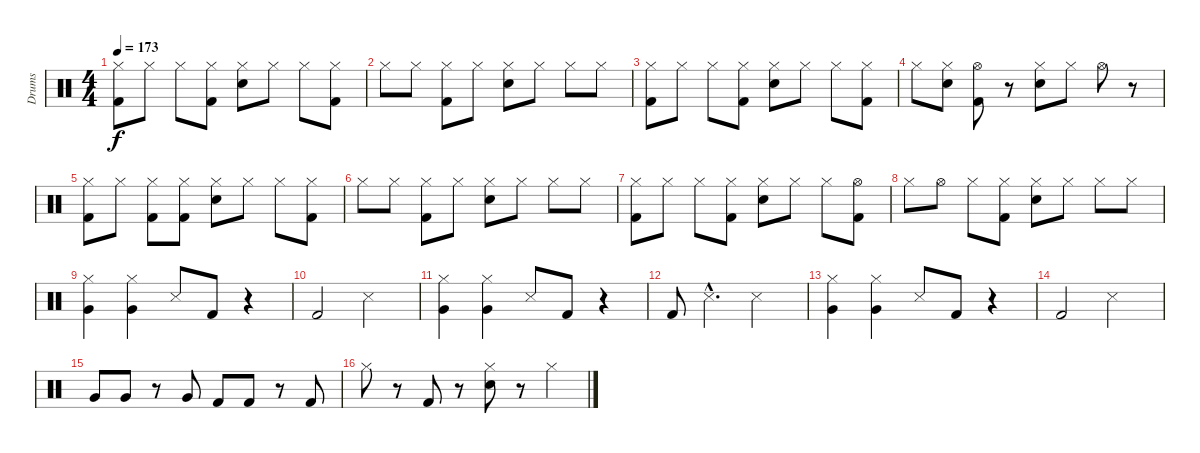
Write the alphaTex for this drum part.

\track ("Drums" "Drums") {instrument percussion}
\staff {score}
\articulation defaults
\ts (4 4)
\tempo 173
\clef neutral
\ks c
("Hi-Hat (closed)" "Kick (hit) 2").8{dy f} "Hi-Hat (closed)".8 "Hi-Hat (closed)".8 ("Hi-Hat (closed)" "Kick (hit) 2").8 ("Hi-Hat (closed)" "Electric Snare (hit)").8 "Hi-Hat (closed)".8 "Hi-Hat (closed)".8 ("Hi-Hat (closed)" "Kick (hit) 2").8 |
"Hi-Hat (closed)".8 "Hi-Hat (closed)".8 ("Hi-Hat (closed)" "Kick (hit) 2").8 "Hi-Hat (closed)".8 ("Hi-Hat (closed)" "Electric Snare (hit)").8 "Hi-Hat (closed)".8 "Hi-Hat (closed)".8 "Hi-Hat (closed)".8 |
("Hi-Hat (closed)" "Kick (hit) 2").8 "Hi-Hat (closed)".8 "Hi-Hat (closed)".8 ("Hi-Hat (closed)" "Kick (hit) 2").8 ("Hi-Hat (closed)" "Electric Snare (hit)").8 "Hi-Hat (closed)".8 "Hi-Hat (closed)".8 ("Hi-Hat (closed)" "Kick (hit) 2").8 |
"Hi-Hat (closed)".8 ("Hi-Hat (closed)" "Electric Snare (hit)").8 ("Hi-Hat (open)" "Kick (hit) 2").8 r.8 ("Hi-Hat (closed)" "Electric Snare (hit)").8 "Hi-Hat (closed)".8 "Hi-Hat (open)".8 r.8 |
("Hi-Hat (closed)" "Kick (hit) 2").8 "Hi-Hat (closed)".8 ("Hi-Hat (closed)" "Kick (hit) 2").8 ("Hi-Hat (closed)" "Kick (hit) 2").8 ("Hi-Hat (closed)" "Electric Snare (hit)").8 "Hi-Hat (closed)".8 "Hi-Hat (closed)".8 ("Hi-Hat (closed)" "Kick (hit) 2").8 |
"Hi-Hat (closed)".8 "Hi-Hat (closed)".8 ("Hi-Hat (closed)" "Kick (hit) 2").8 "Hi-Hat (closed)".8 ("Hi-Hat (closed)" "Electric Snare (hit)").8 "Hi-Hat (closed)".8 "Hi-Hat (closed)".8 "Hi-Hat (closed)".8 |
("Hi-Hat (closed)" "Kick (hit) 2").8 "Hi-Hat (closed)".8 "Hi-Hat (closed)".8 ("Hi-Hat (closed)" "Kick (hit) 2").8 ("Hi-Hat (closed)" "Electric Snare (hit)").8 "Hi-Hat (closed)".8 "Hi-Hat (closed)".8 ("Hi-Hat (open)" "Kick (hit) 2").8 |
"Hi-Hat (closed)".8 "Hi-Hat (open)".8 "Hi-Hat (closed)".8 ("Hi-Hat (closed)" "Kick (hit) 2").8 ("Hi-Hat (closed)" "Electric Snare (hit)").8 "Hi-Hat (closed)".8 "Hi-Hat (closed)".8 "Hi-Hat (closed)".8 |
("Hi-Hat (closed)" "Very Low Tom (hit)").4 ("Hi-Hat (closed)" "Very Low Tom (hit)").4 "Snare (side stick) 3".8 "Kick (hit) 2".8 r.4 |
"Kick (hit) 2".2 "Snare (side stick) 3".2 |
("Hi-Hat (closed)" "Very Low Tom (hit)").4 ("Hi-Hat (closed)" "Very Low Tom (hit)").4 "Snare (side stick) 3".8 "Kick (hit) 2".8 r.4 |
"Kick (hit) 2".8 "Snare (side stick) 3"{hac}.4{d} "Snare (side stick) 3".2 |
("Hi-Hat (closed)" "Very Low Tom (hit)").4 ("Hi-Hat (closed)" "Very Low Tom (hit)").4 "Snare (side stick) 3".8 "Kick (hit) 2".8 r.4 |
"Kick (hit) 2".2 "Snare (side stick) 3".2 |
"Very Low Tom (hit)".8 "Very Low Tom (hit)".8 r.8 "Very Low Tom (hit)".8 "Kick (hit) 2".8 "Kick (hit) 2".8 r.8 "Kick (hit) 2".8 |
"Hi-Hat (closed)".8 r.8 "Kick (hit) 2".8 r.8 ("Hi-Hat (closed)" "Electric Snare (hit)").8 r.8 "Hi-Hat (closed)".4
